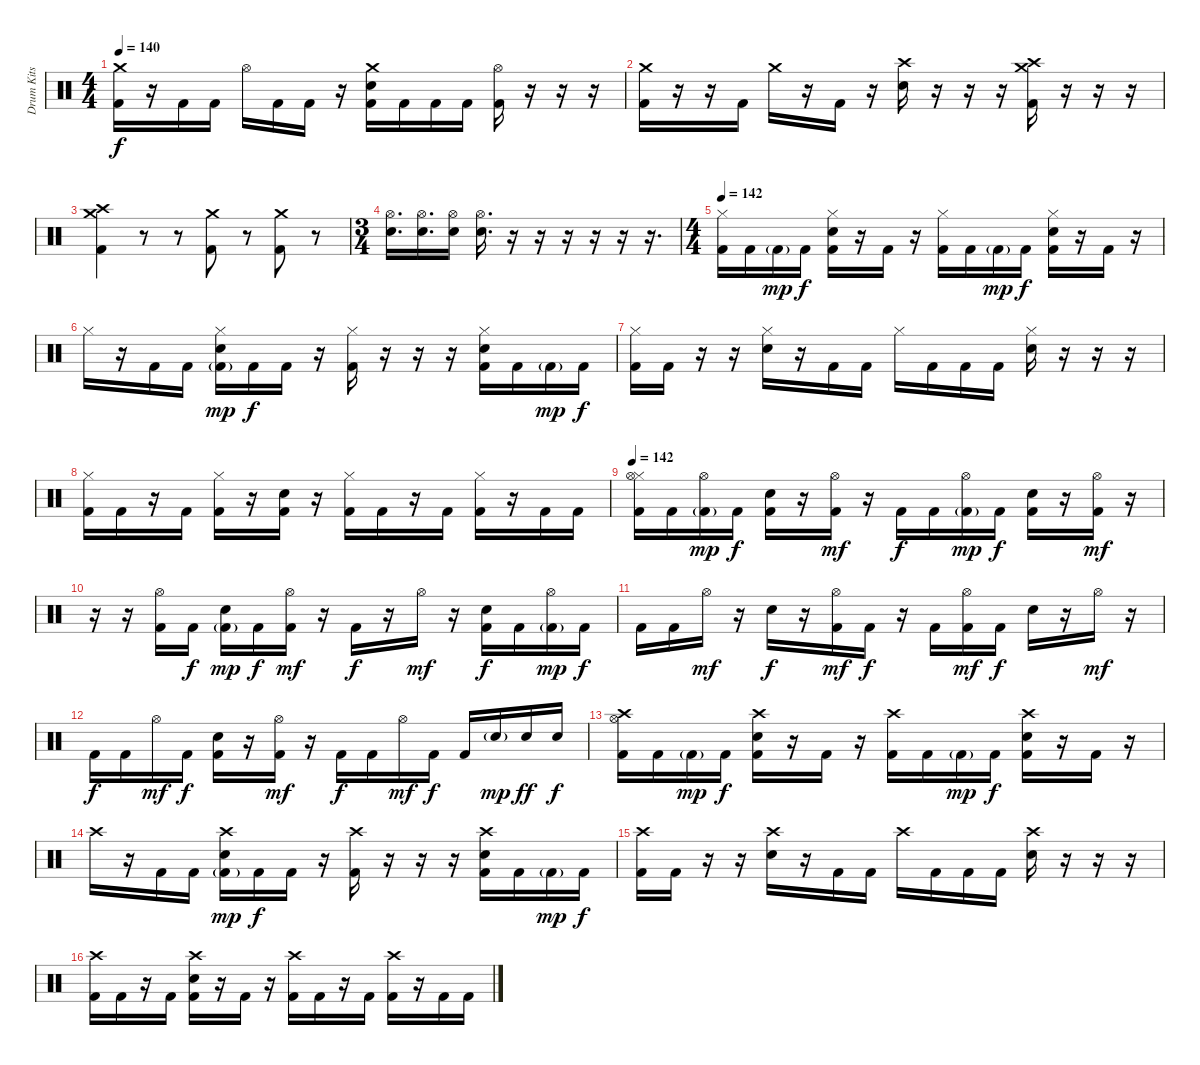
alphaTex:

\track ("Drum Kits" "Drum Kits") {instrument percussion}
\staff {score}
\articulation defaults
\ts (4 4)
\tempo 140
\clef neutral
\ks c
("Crash medium (hit)" "Kick (hit) 2").16{dy f} r.16 "Kick (hit) 2".16 "Kick (hit) 2".16 "Hi-Hat (open)".16 "Kick (hit) 2".16 "Kick (hit) 2".16 r.16 ("Crash medium (hit)" "Electric Snare (hit)" "Kick (hit) 2").16 "Kick (hit) 2".16 "Kick (hit) 2".16 "Kick (hit) 2".16 ("Hi-Hat (open)" "Kick (hit) 2").16 r.16 r.16 r.16 |
("Crash medium (hit)" "Kick (hit) 2").16 r.16 r.16 "Kick (hit) 2".16 "Crash medium (hit)".16 r.16 "Kick (hit) 2".16 r.16 ("Crash high (hit)" "Electric Snare (hit)").16 r.16 r.16 r.16 ("Crash medium (hit)" "Crash high (hit)" "Kick (hit) 2").16 r.16 r.16 r.16 |
("Crash medium (hit)" "Crash high (hit)" "Kick (hit) 2").4 r.8 r.8 ("Crash medium (hit)" "Kick (hit) 2").8 r.8 ("Crash medium (hit)" "Kick (hit) 2").8 r.8 |
\ts (3 4)
("Hi-Hat (open)" "Electric Snare (hit)").16{d} ("Hi-Hat (open)" "Electric Snare (hit)").16{d} ("Hi-Hat (open)" "Electric Snare (hit)").16 ("Hi-Hat (open)" "Electric Snare (hit)").16{d} r.16 r.16 r.16 r.16 r.16 r.16{d} |
\ts (4 4)
\tempo 142
("Hi-Hat (closed)" "Kick (hit) 2").16 "Kick (hit) 2".16 "Kick (hit) 2"{g}.16{dy mp} "Kick (hit) 2".16{dy f} ("Hi-Hat (closed)" "Electric Snare (hit)" "Kick (hit) 2").16 r.16 "Kick (hit) 2".16 r.16 ("Hi-Hat (closed)" "Kick (hit) 2").16 "Kick (hit) 2".16 "Kick (hit) 2"{g}.16{dy mp} "Kick (hit) 2".16{dy f} ("Hi-Hat (closed)" "Electric Snare (hit)" "Kick (hit) 2").16 r.16 "Kick (hit) 2".16 r.16 |
"Hi-Hat (closed)".16 r.16 "Kick (hit) 2".16 "Kick (hit) 2".16 ("Hi-Hat (closed)" "Electric Snare (hit)" "Kick (hit) 2"{g}).16{dy mp} "Kick (hit) 2".16{dy f} "Kick (hit) 2".16 r.16 ("Hi-Hat (closed)" "Kick (hit) 2").16 r.16 r.16 r.16 ("Hi-Hat (closed)" "Electric Snare (hit)" "Kick (hit) 2").16 "Kick (hit) 2".16 "Kick (hit) 2"{g}.16{dy mp} "Kick (hit) 2".16{dy f} |
("Hi-Hat (closed)" "Kick (hit) 2").16 "Kick (hit) 2".16 r.16 r.16 ("Hi-Hat (closed)" "Electric Snare (hit)").16 r.16 "Kick (hit) 2".16 "Kick (hit) 2".16 "Hi-Hat (closed)".16 "Kick (hit) 2".16 "Kick (hit) 2".16 "Kick (hit) 2".16 ("Hi-Hat (closed)" "Electric Snare (hit)").16 r.16 r.16 r.16 |
("Hi-Hat (closed)" "Kick (hit) 2").16 "Kick (hit) 2".16 r.16 "Kick (hit) 2".16 ("Hi-Hat (closed)" "Kick (hit) 2").16 r.16 ("Electric Snare (hit)" "Kick (hit) 2").16 r.16 ("Hi-Hat (closed)" "Kick (hit) 2").16 "Kick (hit) 2".16 r.16 "Kick (hit) 2".16 ("Hi-Hat (closed)" "Kick (hit) 2").16 r.16 "Kick (hit) 2".16 "Kick (hit) 2".16 |
\tempo 142
("Hi-Hat (closed)" "Hi-Hat (open)" "Kick (hit) 2").16 "Kick (hit) 2".16 ("Hi-Hat (open)" "Kick (hit) 2"{g}).16{dy mp} "Kick (hit) 2".16{dy f} ("Electric Snare (hit)" "Kick (hit) 2").16 r.16 ("Hi-Hat (open)" "Kick (hit) 2").16{dy mf} r.16 "Kick (hit) 2".16{dy f} "Kick (hit) 2".16 ("Hi-Hat (open)" "Kick (hit) 2"{g}).16{dy mp} "Kick (hit) 2".16{dy f} ("Electric Snare (hit)" "Kick (hit) 2").16 r.16 ("Hi-Hat (open)" "Kick (hit) 2").16{dy mf} r.16 |
r.16 r.16 ("Hi-Hat (open)" "Kick (hit) 2").16 "Kick (hit) 2".16{dy f} ("Electric Snare (hit)" "Kick (hit) 2"{g}).16{dy mp} "Kick (hit) 2".16{dy f} ("Hi-Hat (open)" "Kick (hit) 2").16{dy mf} r.16 "Kick (hit) 2".16{dy f} r.16 "Hi-Hat (open)".16{dy mf} r.16 ("Electric Snare (hit)" "Kick (hit) 2").16{dy f} "Kick (hit) 2".16 ("Hi-Hat (open)" "Kick (hit) 2"{g}).16{dy mp} "Kick (hit) 2".16{dy f} |
"Kick (hit) 2".16 "Kick (hit) 2".16 "Hi-Hat (open)".16{dy mf} r.16 "Electric Snare (hit)".16{dy f} r.16 ("Hi-Hat (open)" "Kick (hit) 2").16{dy mf} "Kick (hit) 2".16{dy f} r.16 "Kick (hit) 2".16 ("Hi-Hat (open)" "Kick (hit) 2").16{dy mf} "Kick (hit) 2".16{dy f} "Electric Snare (hit)".16 r.16 "Hi-Hat (open)".16{dy mf} r.16 |
"Kick (hit) 2".16{dy f} "Kick (hit) 2".16 "Hi-Hat (open)".16{dy mf} "Kick (hit) 2".16{dy f} ("Electric Snare (hit)" "Kick (hit) 2").16 r.16 ("Hi-Hat (open)" "Kick (hit) 2").16{dy mf} r.16 "Kick (hit) 2".16{dy f} "Kick (hit) 2".16 "Hi-Hat (open)".16{dy mf} "Kick (hit) 2".16{dy f} "Kick (hit) 2".16 "Electric Snare (hit)"{g}.16{dy mp} "Electric Snare (hit)".16{dy ff} "Electric Snare (hit)".16{dy f} |
("Crash high (hit)" "Hi-Hat (open)" "Kick (hit) 2").16 "Kick (hit) 2".16 "Kick (hit) 2"{g}.16{dy mp} "Kick (hit) 2".16{dy f} ("Crash high (hit)" "Electric Snare (hit)" "Kick (hit) 2").16 r.16 "Kick (hit) 2".16 r.16 ("Crash high (hit)" "Kick (hit) 2").16 "Kick (hit) 2".16 "Kick (hit) 2"{g}.16{dy mp} "Kick (hit) 2".16{dy f} ("Crash high (hit)" "Electric Snare (hit)" "Kick (hit) 2").16 r.16 "Kick (hit) 2".16 r.16 |
"Crash high (hit)".16 r.16 "Kick (hit) 2".16 "Kick (hit) 2".16 ("Crash high (hit)" "Electric Snare (hit)" "Kick (hit) 2"{g}).16{dy mp} "Kick (hit) 2".16{dy f} "Kick (hit) 2".16 r.16 ("Crash high (hit)" "Kick (hit) 2").16 r.16 r.16 r.16 ("Crash high (hit)" "Electric Snare (hit)" "Kick (hit) 2").16 "Kick (hit) 2".16 "Kick (hit) 2"{g}.16{dy mp} "Kick (hit) 2".16{dy f} |
("Crash high (hit)" "Kick (hit) 2").16 "Kick (hit) 2".16 r.16 r.16 ("Crash high (hit)" "Electric Snare (hit)").16 r.16 "Kick (hit) 2".16 "Kick (hit) 2".16 "Crash high (hit)".16 "Kick (hit) 2".16 "Kick (hit) 2".16 "Kick (hit) 2".16 ("Crash high (hit)" "Electric Snare (hit)").16 r.16 r.16 r.16 |
("Crash high (hit)" "Kick (hit) 2").16 "Kick (hit) 2".16 r.16 "Kick (hit) 2".16 ("Crash high (hit)" "Electric Snare (hit)" "Kick (hit) 2").16 r.16 "Kick (hit) 2".16 r.16 ("Crash high (hit)" "Kick (hit) 2").16 "Kick (hit) 2".16 r.16 "Kick (hit) 2".16 ("Crash high (hit)" "Kick (hit) 2").16 r.16 "Kick (hit) 2".16 "Kick (hit) 2".16
